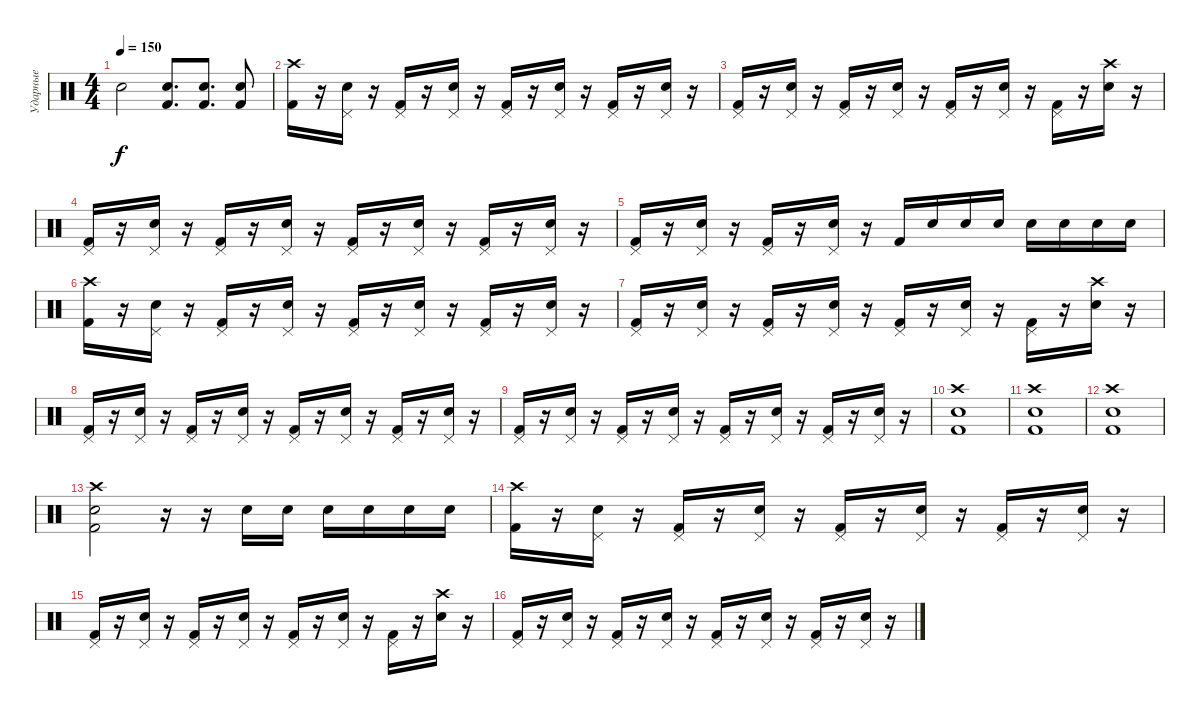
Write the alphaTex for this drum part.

\track ("Ударные" "Ударные") {instrument percussion}
\staff {score}
\articulation defaults
\ts (4 4)
\tempo 150
\clef neutral
\ks c "Electric Snare (hit)".2{dy f}
("Electric Snare (hit)" "Kick (hit) 2").8{d} ("Electric Snare (hit)" "Kick (hit) 2").8{d} ("Electric Snare (hit)" "Kick (hit) 2").8 |
("Kick (hit) 2" "Crash high (hit)").16 r.16 ("Electric Snare (hit)" "Pedal Hi-Hat (hit)").16 r.16 ("Kick (hit) 2" "Pedal Hi-Hat (hit)").16 r.16 ("Electric Snare (hit)" "Pedal Hi-Hat (hit)").16 r.16 ("Kick (hit) 2" "Pedal Hi-Hat (hit)").16 r.16 ("Electric Snare (hit)" "Pedal Hi-Hat (hit)").16 r.16 ("Kick (hit) 2" "Pedal Hi-Hat (hit)").16 r.16 ("Electric Snare (hit)" "Pedal Hi-Hat (hit)").16 r.16 |
("Kick (hit) 2" "Pedal Hi-Hat (hit)").16 r.16 ("Electric Snare (hit)" "Pedal Hi-Hat (hit)").16 r.16 ("Kick (hit) 2" "Pedal Hi-Hat (hit)").16 r.16 ("Electric Snare (hit)" "Pedal Hi-Hat (hit)").16 r.16 ("Kick (hit) 2" "Pedal Hi-Hat (hit)").16 r.16 ("Electric Snare (hit)" "Pedal Hi-Hat (hit)").16 r.16 ("Kick (hit) 2" "Pedal Hi-Hat (hit)").16 r.16 ("Electric Snare (hit)" "Crash high (hit)").16 r.16 |
("Kick (hit) 2" "Pedal Hi-Hat (hit)").16 r.16 ("Electric Snare (hit)" "Pedal Hi-Hat (hit)").16 r.16 ("Kick (hit) 2" "Pedal Hi-Hat (hit)").16 r.16 ("Electric Snare (hit)" "Pedal Hi-Hat (hit)").16 r.16 ("Kick (hit) 2" "Pedal Hi-Hat (hit)").16 r.16 ("Electric Snare (hit)" "Pedal Hi-Hat (hit)").16 r.16 ("Kick (hit) 2" "Pedal Hi-Hat (hit)").16 r.16 ("Electric Snare (hit)" "Pedal Hi-Hat (hit)").16 r.16 |
("Kick (hit) 2" "Pedal Hi-Hat (hit)").16 r.16 ("Electric Snare (hit)" "Pedal Hi-Hat (hit)").16 r.16 ("Kick (hit) 2" "Pedal Hi-Hat (hit)").16 r.16 ("Electric Snare (hit)" "Pedal Hi-Hat (hit)").16 r.16 "Kick (hit) 2".16 "Electric Snare (hit)".16 "Electric Snare (hit)".16 "Electric Snare (hit)".16 "Electric Snare (hit)".16 "Electric Snare (hit)".16 "Electric Snare (hit)".16 "Electric Snare (hit)".16 |
("Kick (hit) 2" "Crash high (hit)").16 r.16 ("Electric Snare (hit)" "Pedal Hi-Hat (hit)").16 r.16 ("Kick (hit) 2" "Pedal Hi-Hat (hit)").16 r.16 ("Electric Snare (hit)" "Pedal Hi-Hat (hit)").16 r.16 ("Kick (hit) 2" "Pedal Hi-Hat (hit)").16 r.16 ("Electric Snare (hit)" "Pedal Hi-Hat (hit)").16 r.16 ("Kick (hit) 2" "Pedal Hi-Hat (hit)").16 r.16 ("Electric Snare (hit)" "Pedal Hi-Hat (hit)").16 r.16 |
("Kick (hit) 2" "Pedal Hi-Hat (hit)").16 r.16 ("Electric Snare (hit)" "Pedal Hi-Hat (hit)").16 r.16 ("Kick (hit) 2" "Pedal Hi-Hat (hit)").16 r.16 ("Electric Snare (hit)" "Pedal Hi-Hat (hit)").16 r.16 ("Kick (hit) 2" "Pedal Hi-Hat (hit)").16 r.16 ("Electric Snare (hit)" "Pedal Hi-Hat (hit)").16 r.16 ("Kick (hit) 2" "Pedal Hi-Hat (hit)").16 r.16 ("Electric Snare (hit)" "Crash high (hit)").16 r.16 |
("Kick (hit) 2" "Pedal Hi-Hat (hit)").16 r.16 ("Electric Snare (hit)" "Pedal Hi-Hat (hit)").16 r.16 ("Kick (hit) 2" "Pedal Hi-Hat (hit)").16 r.16 ("Electric Snare (hit)" "Pedal Hi-Hat (hit)").16 r.16 ("Kick (hit) 2" "Pedal Hi-Hat (hit)").16 r.16 ("Electric Snare (hit)" "Pedal Hi-Hat (hit)").16 r.16 ("Kick (hit) 2" "Pedal Hi-Hat (hit)").16 r.16 ("Electric Snare (hit)" "Pedal Hi-Hat (hit)").16 r.16 |
("Kick (hit) 2" "Pedal Hi-Hat (hit)").16 r.16 ("Electric Snare (hit)" "Pedal Hi-Hat (hit)").16 r.16 ("Kick (hit) 2" "Pedal Hi-Hat (hit)").16 r.16 ("Electric Snare (hit)" "Pedal Hi-Hat (hit)").16 r.16 ("Kick (hit) 2" "Pedal Hi-Hat (hit)").16 r.16 ("Electric Snare (hit)" "Pedal Hi-Hat (hit)").16 r.16 ("Kick (hit) 2" "Pedal Hi-Hat (hit)").16 r.16 ("Electric Snare (hit)" "Pedal Hi-Hat (hit)").16 r.16 |
("Electric Snare (hit)" "Crash high (hit)" "Kick (hit) 2").1 |
("Electric Snare (hit)" "Crash high (hit)" "Kick (hit) 2").1 |
("Electric Snare (hit)" "Crash high (hit)" "Kick (hit) 2").1 |
("Electric Snare (hit)" "Crash high (hit)" "Kick (hit) 2").2 r.16 r.16 "Electric Snare (hit)".16 "Electric Snare (hit)".16 "Electric Snare (hit)".16 "Electric Snare (hit)".16 "Electric Snare (hit)".16 "Electric Snare (hit)".16 |
("Kick (hit) 2" "Crash high (hit)").16 r.16 ("Electric Snare (hit)" "Pedal Hi-Hat (hit)").16 r.16 ("Kick (hit) 2" "Pedal Hi-Hat (hit)").16 r.16 ("Electric Snare (hit)" "Pedal Hi-Hat (hit)").16 r.16 ("Kick (hit) 2" "Pedal Hi-Hat (hit)").16 r.16 ("Electric Snare (hit)" "Pedal Hi-Hat (hit)").16 r.16 ("Kick (hit) 2" "Pedal Hi-Hat (hit)").16 r.16 ("Electric Snare (hit)" "Pedal Hi-Hat (hit)").16 r.16 |
("Kick (hit) 2" "Pedal Hi-Hat (hit)").16 r.16 ("Electric Snare (hit)" "Pedal Hi-Hat (hit)").16 r.16 ("Kick (hit) 2" "Pedal Hi-Hat (hit)").16 r.16 ("Electric Snare (hit)" "Pedal Hi-Hat (hit)").16 r.16 ("Kick (hit) 2" "Pedal Hi-Hat (hit)").16 r.16 ("Electric Snare (hit)" "Pedal Hi-Hat (hit)").16 r.16 ("Kick (hit) 2" "Pedal Hi-Hat (hit)").16 r.16 ("Electric Snare (hit)" "Crash high (hit)").16 r.16 |
("Kick (hit) 2" "Pedal Hi-Hat (hit)").16 r.16 ("Electric Snare (hit)" "Pedal Hi-Hat (hit)").16 r.16 ("Kick (hit) 2" "Pedal Hi-Hat (hit)").16 r.16 ("Electric Snare (hit)" "Pedal Hi-Hat (hit)").16 r.16 ("Kick (hit) 2" "Pedal Hi-Hat (hit)").16 r.16 ("Electric Snare (hit)" "Pedal Hi-Hat (hit)").16 r.16 ("Kick (hit) 2" "Pedal Hi-Hat (hit)").16 r.16 ("Electric Snare (hit)" "Pedal Hi-Hat (hit)").16 r.16
